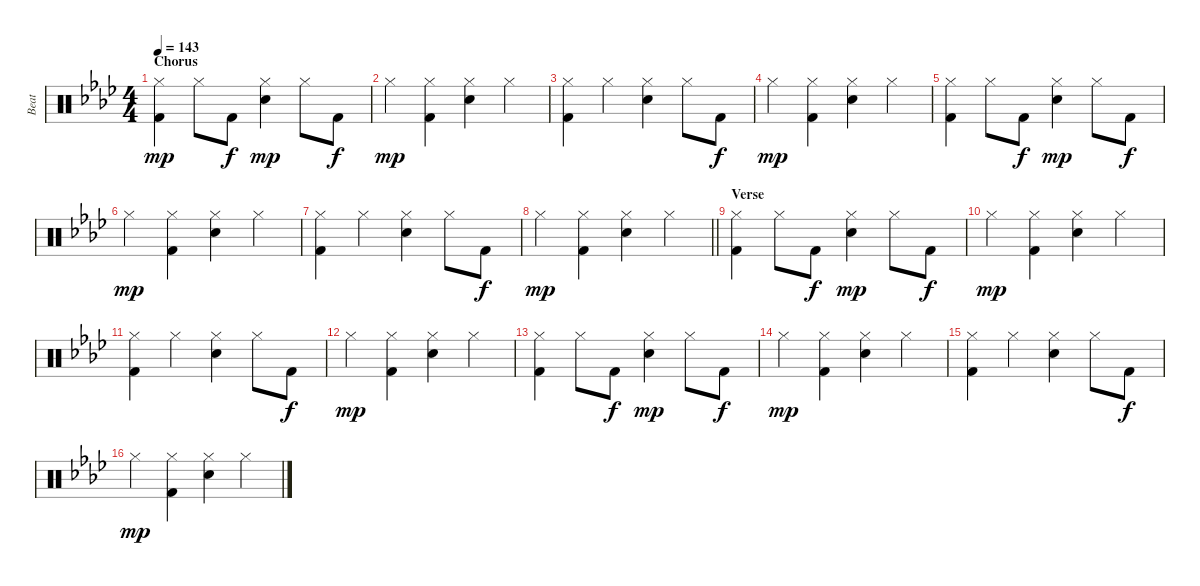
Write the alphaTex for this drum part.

\track ("Beat" "Beat") {instrument percussion}
\staff {score}
\articulation defaults
\ts (4 4)
\section ("" "Chorus")
\tempo 143
\clef neutral
\ks ab
("Hi-Hat (closed)" "Kick (hit) 2").4{dy mp} "Hi-Hat (closed)".8 "Kick (hit) 2".8{dy f} ("Hi-Hat (closed)" "Hand Clap (hit)").4{dy mp} "Hi-Hat (closed)".8 "Kick (hit) 2".8{dy f} |
"Hi-Hat (closed)".4{dy mp} ("Hi-Hat (closed)" "Kick (hit) 2").4 ("Hi-Hat (closed)" "Hand Clap (hit)").4 "Hi-Hat (closed)".4 |
("Hi-Hat (closed)" "Kick (hit) 2").4 "Hi-Hat (closed)".4 ("Hi-Hat (closed)" "Hand Clap (hit)").4 "Hi-Hat (closed)".8 "Kick (hit) 2".8{dy f} |
"Hi-Hat (closed)".4{dy mp} ("Hi-Hat (closed)" "Kick (hit) 2").4 ("Hi-Hat (closed)" "Hand Clap (hit)").4 "Hi-Hat (closed)".4 |
("Hi-Hat (closed)" "Kick (hit) 2").4 "Hi-Hat (closed)".8 "Kick (hit) 2".8{dy f} ("Hi-Hat (closed)" "Hand Clap (hit)").4{dy mp} "Hi-Hat (closed)".8 "Kick (hit) 2".8{dy f} |
"Hi-Hat (closed)".4{dy mp} ("Hi-Hat (closed)" "Kick (hit) 2").4 ("Hi-Hat (closed)" "Hand Clap (hit)").4 "Hi-Hat (closed)".4 |
("Hi-Hat (closed)" "Kick (hit) 2").4 "Hi-Hat (closed)".4 ("Hi-Hat (closed)" "Hand Clap (hit)").4 "Hi-Hat (closed)".8 "Kick (hit) 2".8{dy f} |
\barLineRight lightlight "Hi-Hat (closed)".4{dy mp}
("Hi-Hat (closed)" "Kick (hit) 2").4 ("Hi-Hat (closed)" "Hand Clap (hit)").4 "Hi-Hat (closed)".4 |
\section ("" "Verse")
("Hi-Hat (closed)" "Kick (hit) 2").4 "Hi-Hat (closed)".8 "Kick (hit) 2".8{dy f} ("Hi-Hat (closed)" "Hand Clap (hit)").4{dy mp} "Hi-Hat (closed)".8 "Kick (hit) 2".8{dy f} |
"Hi-Hat (closed)".4{dy mp} ("Hi-Hat (closed)" "Kick (hit) 2").4 ("Hi-Hat (closed)" "Hand Clap (hit)").4 "Hi-Hat (closed)".4 |
("Hi-Hat (closed)" "Kick (hit) 2").4 "Hi-Hat (closed)".4 ("Hi-Hat (closed)" "Hand Clap (hit)").4 "Hi-Hat (closed)".8 "Kick (hit) 2".8{dy f} |
"Hi-Hat (closed)".4{dy mp} ("Hi-Hat (closed)" "Kick (hit) 2").4 ("Hi-Hat (closed)" "Hand Clap (hit)").4 "Hi-Hat (closed)".4 |
("Hi-Hat (closed)" "Kick (hit) 2").4 "Hi-Hat (closed)".8 "Kick (hit) 2".8{dy f} ("Hi-Hat (closed)" "Hand Clap (hit)").4{dy mp} "Hi-Hat (closed)".8 "Kick (hit) 2".8{dy f} |
"Hi-Hat (closed)".4{dy mp} ("Hi-Hat (closed)" "Kick (hit) 2").4 ("Hi-Hat (closed)" "Hand Clap (hit)").4 "Hi-Hat (closed)".4 |
("Hi-Hat (closed)" "Kick (hit) 2").4 "Hi-Hat (closed)".4 ("Hi-Hat (closed)" "Hand Clap (hit)").4 "Hi-Hat (closed)".8 "Kick (hit) 2".8{dy f} |
"Hi-Hat (closed)".4{dy mp} ("Hi-Hat (closed)" "Kick (hit) 2").4 ("Hi-Hat (closed)" "Hand Clap (hit)").4 "Hi-Hat (closed)".4
